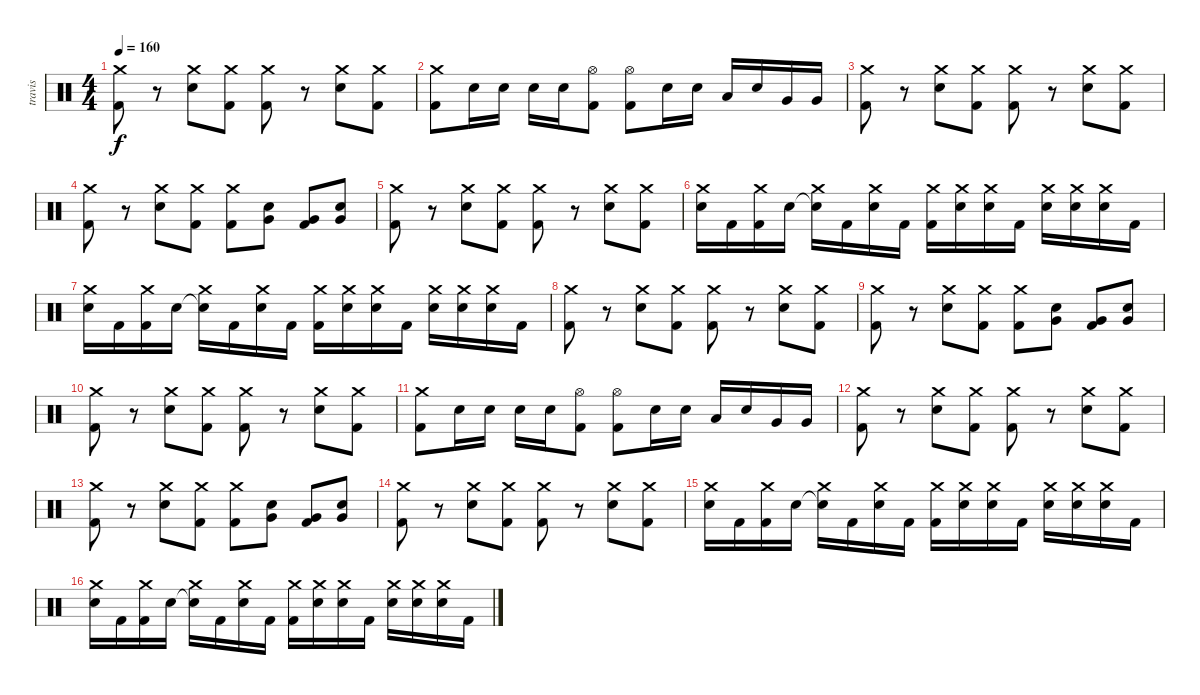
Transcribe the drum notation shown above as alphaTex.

\track ("travis" "travis") {instrument percussion}
\staff {score}
\articulation defaults
\ts (4 4)
\tempo 160
\clef neutral
\ks c
("Kick (hit) 2" "Crash medium (hit)").8{dy f} r.8 ("Snare (hit) 2" "Crash medium (hit)").8 ("Kick (hit) 2" "Crash medium (hit)").8 ("Kick (hit) 2" "Crash medium (hit)").8 r.8 ("Snare (hit) 2" "Crash medium (hit)").8 ("Kick (hit) 2" "Crash medium (hit)").8 |
("Kick (hit) 2" "Crash medium (hit)").8 "Snare (hit) 2".16 "Snare (hit) 2".16 "Snare (hit) 2".16 "Snare (hit) 2".16 ("Hi-Hat (open)" "Kick (hit) 2").8 ("Hi-Hat (open)" "Kick (hit) 2").8 "Snare (hit) 2".16 "Snare (hit) 2".16 "Low Tom (hit)".16 "Snare (hit) 2".16 "Very Low Tom (hit)".16 "Very Low Tom (hit)".16 |
("Kick (hit) 2" "Crash medium (hit)").8 r.8 ("Snare (hit) 2" "Crash medium (hit)").8 ("Kick (hit) 2" "Crash medium (hit)").8 ("Kick (hit) 2" "Crash medium (hit)").8 r.8 ("Snare (hit) 2" "Crash medium (hit)").8 ("Kick (hit) 2" "Crash medium (hit)").8 |
("Kick (hit) 2" "Crash medium (hit)").8 r.8 ("Snare (hit) 2" "Crash medium (hit)").8 ("Kick (hit) 2" "Crash medium (hit)").8 ("Kick (hit) 2" "Crash medium (hit)").8 ("Snare (hit) 2" "Very Low Tom (hit)").8 ("Kick (hit) 2" "Very Low Tom (hit)").8 ("Snare (hit) 2" "Very Low Tom (hit)").8 |
("Kick (hit) 2" "Crash medium (hit)").8 r.8 ("Snare (hit) 2" "Crash medium (hit)").8 ("Kick (hit) 2" "Crash medium (hit)").8 ("Kick (hit) 2" "Crash medium (hit)").8 r.8 ("Snare (hit) 2" "Crash medium (hit)").8 ("Kick (hit) 2" "Crash medium (hit)").8 |
("Snare (hit) 2" "Crash medium (hit)").16 "Kick (hit) 2".16 ("Kick (hit) 2" "Crash medium (hit)").16 "Snare (hit) 2".16 ("Snare (hit)"{t} "Crash medium (hit)").16 "Kick (hit) 2".16 ("Snare (hit) 2" "Crash medium (hit)").16 "Kick (hit) 2".16 ("Kick (hit) 2" "Crash medium (hit)").16 ("Snare (hit) 2" "Crash medium (hit)").16 ("Snare (hit) 2" "Crash medium (hit)").16 "Kick (hit) 2".16 ("Snare (hit) 2" "Crash medium (hit)").16 ("Snare (hit) 2" "Crash medium (hit)").16 ("Snare (hit) 2" "Crash medium (hit)").16 "Kick (hit) 2".16 |
("Snare (hit) 2" "Crash medium (hit)").16 "Kick (hit) 2".16 ("Kick (hit) 2" "Crash medium (hit)").16 "Snare (hit) 2".16 ("Snare (hit)"{t} "Crash medium (hit)").16 "Kick (hit) 2".16 ("Snare (hit) 2" "Crash medium (hit)").16 "Kick (hit) 2".16 ("Kick (hit) 2" "Crash medium (hit)").16 ("Snare (hit) 2" "Crash medium (hit)").16 ("Snare (hit) 2" "Crash medium (hit)").16 "Kick (hit) 2".16 ("Snare (hit) 2" "Crash medium (hit)").16 ("Snare (hit) 2" "Crash medium (hit)").16 ("Snare (hit) 2" "Crash medium (hit)").16 "Kick (hit) 2".16 |
("Kick (hit) 2" "Crash medium (hit)").8 r.8 ("Snare (hit) 2" "Crash medium (hit)").8 ("Kick (hit) 2" "Crash medium (hit)").8 ("Kick (hit) 2" "Crash medium (hit)").8 r.8 ("Snare (hit) 2" "Crash medium (hit)").8 ("Kick (hit) 2" "Crash medium (hit)").8 |
("Kick (hit) 2" "Crash medium (hit)").8 r.8 ("Snare (hit) 2" "Crash medium (hit)").8 ("Kick (hit) 2" "Crash medium (hit)").8 ("Kick (hit) 2" "Crash medium (hit)").8 ("Snare (hit) 2" "Very Low Tom (hit)").8 ("Kick (hit) 2" "Very Low Tom (hit)").8 ("Snare (hit) 2" "Very Low Tom (hit)").8 |
("Kick (hit) 2" "Crash medium (hit)").8 r.8 ("Snare (hit) 2" "Crash medium (hit)").8 ("Kick (hit) 2" "Crash medium (hit)").8 ("Kick (hit) 2" "Crash medium (hit)").8 r.8 ("Snare (hit) 2" "Crash medium (hit)").8 ("Kick (hit) 2" "Crash medium (hit)").8 |
("Kick (hit) 2" "Crash medium (hit)").8 "Snare (hit) 2".16 "Snare (hit) 2".16 "Snare (hit) 2".16 "Snare (hit) 2".16 ("Hi-Hat (open)" "Kick (hit) 2").8 ("Hi-Hat (open)" "Kick (hit) 2").8 "Snare (hit) 2".16 "Snare (hit) 2".16 "Low Tom (hit)".16 "Snare (hit) 2".16 "Very Low Tom (hit)".16 "Very Low Tom (hit)".16 |
("Kick (hit) 2" "Crash medium (hit)").8 r.8 ("Snare (hit) 2" "Crash medium (hit)").8 ("Kick (hit) 2" "Crash medium (hit)").8 ("Kick (hit) 2" "Crash medium (hit)").8 r.8 ("Snare (hit) 2" "Crash medium (hit)").8 ("Kick (hit) 2" "Crash medium (hit)").8 |
("Kick (hit) 2" "Crash medium (hit)").8 r.8 ("Snare (hit) 2" "Crash medium (hit)").8 ("Kick (hit) 2" "Crash medium (hit)").8 ("Kick (hit) 2" "Crash medium (hit)").8 ("Snare (hit) 2" "Very Low Tom (hit)").8 ("Kick (hit) 2" "Very Low Tom (hit)").8 ("Snare (hit) 2" "Very Low Tom (hit)").8 |
("Kick (hit) 2" "Crash medium (hit)").8 r.8 ("Snare (hit) 2" "Crash medium (hit)").8 ("Kick (hit) 2" "Crash medium (hit)").8 ("Kick (hit) 2" "Crash medium (hit)").8 r.8 ("Snare (hit) 2" "Crash medium (hit)").8 ("Kick (hit) 2" "Crash medium (hit)").8 |
("Snare (hit) 2" "Crash medium (hit)").16 "Kick (hit) 2".16 ("Kick (hit) 2" "Crash medium (hit)").16 "Snare (hit) 2".16 ("Snare (hit)"{t} "Crash medium (hit)").16 "Kick (hit) 2".16 ("Snare (hit) 2" "Crash medium (hit)").16 "Kick (hit) 2".16 ("Kick (hit) 2" "Crash medium (hit)").16 ("Snare (hit) 2" "Crash medium (hit)").16 ("Snare (hit) 2" "Crash medium (hit)").16 "Kick (hit) 2".16 ("Snare (hit) 2" "Crash medium (hit)").16 ("Snare (hit) 2" "Crash medium (hit)").16 ("Snare (hit) 2" "Crash medium (hit)").16 "Kick (hit) 2".16 |
("Snare (hit) 2" "Crash medium (hit)").16 "Kick (hit) 2".16 ("Kick (hit) 2" "Crash medium (hit)").16 "Snare (hit) 2".16 ("Snare (hit)"{t} "Crash medium (hit)").16 "Kick (hit) 2".16 ("Snare (hit) 2" "Crash medium (hit)").16 "Kick (hit) 2".16 ("Kick (hit) 2" "Crash medium (hit)").16 ("Snare (hit) 2" "Crash medium (hit)").16 ("Snare (hit) 2" "Crash medium (hit)").16 "Kick (hit) 2".16 ("Snare (hit) 2" "Crash medium (hit)").16 ("Snare (hit) 2" "Crash medium (hit)").16 ("Snare (hit) 2" "Crash medium (hit)").16 "Kick (hit) 2".16
